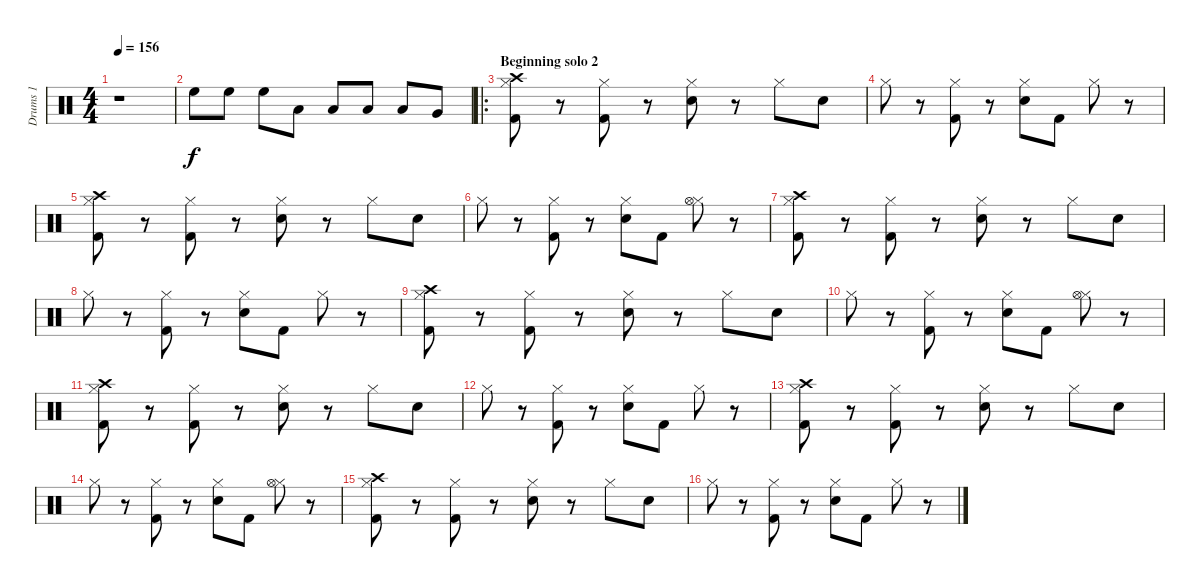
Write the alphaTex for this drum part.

\track ("Drums 1" "Drums 1") {instrument percussion}
\staff {score}
\articulation defaults
\ts (4 4)
\tempo 156
\clef neutral
\ks c
r.1{dy f} |
"High Floor Tom (hit)".8 "High Floor Tom (hit)".8 "High Floor Tom (hit)".8 "Low Tom (hit)".8 "Low Tom (hit)".8 "Low Tom (hit)".8 "Low Tom (hit)".8 "Very Low Tom (hit)".8 |
\ro
\section ("" "Beginning solo 2")
("Hi-Hat (closed)" "Crash high (hit)" "Kick (hit) 2").8 r.8 ("Hi-Hat (closed)" "Kick (hit) 2").8 r.8 ("Hi-Hat (closed)" "Snare (hit) 2").8 r.8 "Hi-Hat (closed)".8 "Snare (hit) 2".8 |
"Hi-Hat (closed)".8 r.8 ("Hi-Hat (closed)" "Kick (hit) 2").8 r.8 ("Hi-Hat (closed)" "Snare (hit) 2").8 "Kick (hit) 2".8 "Hi-Hat (closed)".8 r.8 |
("Hi-Hat (closed)" "Crash high (hit)" "Kick (hit) 2").8 r.8 ("Hi-Hat (closed)" "Kick (hit) 2").8 r.8 ("Hi-Hat (closed)" "Snare (hit) 2").8 r.8 "Hi-Hat (closed)".8 "Snare (hit) 2".8 |
"Hi-Hat (closed)".8 r.8 ("Hi-Hat (closed)" "Kick (hit) 2").8 r.8 ("Hi-Hat (closed)" "Snare (hit) 2").8 "Kick (hit) 2".8 ("Hi-Hat (closed)" "Hi-Hat (open)").8 r.8 |
("Hi-Hat (closed)" "Crash high (hit)" "Kick (hit) 2").8 r.8 ("Hi-Hat (closed)" "Kick (hit) 2").8 r.8 ("Hi-Hat (closed)" "Snare (hit) 2").8 r.8 "Hi-Hat (closed)".8 "Snare (hit) 2".8 |
"Hi-Hat (closed)".8 r.8 ("Hi-Hat (closed)" "Kick (hit) 2").8 r.8 ("Hi-Hat (closed)" "Snare (hit) 2").8 "Kick (hit) 2".8 "Hi-Hat (closed)".8 r.8 |
("Hi-Hat (closed)" "Crash high (hit)" "Kick (hit) 2").8 r.8 ("Hi-Hat (closed)" "Kick (hit) 2").8 r.8 ("Hi-Hat (closed)" "Snare (hit) 2").8 r.8 "Hi-Hat (closed)".8 "Snare (hit) 2".8 |
"Hi-Hat (closed)".8 r.8 ("Hi-Hat (closed)" "Kick (hit) 2").8 r.8 ("Hi-Hat (closed)" "Snare (hit) 2").8 "Kick (hit) 2".8 ("Hi-Hat (closed)" "Hi-Hat (open)").8 r.8 |
("Hi-Hat (closed)" "Crash high (hit)" "Kick (hit) 2").8 r.8 ("Hi-Hat (closed)" "Kick (hit) 2").8 r.8 ("Hi-Hat (closed)" "Snare (hit) 2").8 r.8 "Hi-Hat (closed)".8 "Snare (hit) 2".8 |
"Hi-Hat (closed)".8 r.8 ("Hi-Hat (closed)" "Kick (hit) 2").8 r.8 ("Hi-Hat (closed)" "Snare (hit) 2").8 "Kick (hit) 2".8 "Hi-Hat (closed)".8 r.8 |
("Hi-Hat (closed)" "Crash high (hit)" "Kick (hit) 2").8 r.8 ("Hi-Hat (closed)" "Kick (hit) 2").8 r.8 ("Hi-Hat (closed)" "Snare (hit) 2").8 r.8 "Hi-Hat (closed)".8 "Snare (hit) 2".8 |
"Hi-Hat (closed)".8 r.8 ("Hi-Hat (closed)" "Kick (hit) 2").8 r.8 ("Hi-Hat (closed)" "Snare (hit) 2").8 "Kick (hit) 2".8 ("Hi-Hat (closed)" "Hi-Hat (open)").8 r.8 |
("Hi-Hat (closed)" "Crash high (hit)" "Kick (hit) 2").8 r.8 ("Hi-Hat (closed)" "Kick (hit) 2").8 r.8 ("Hi-Hat (closed)" "Snare (hit) 2").8 r.8 "Hi-Hat (closed)".8 "Snare (hit) 2".8 |
"Hi-Hat (closed)".8 r.8 ("Hi-Hat (closed)" "Kick (hit) 2").8 r.8 ("Hi-Hat (closed)" "Snare (hit) 2").8 "Kick (hit) 2".8 "Hi-Hat (closed)".8 r.8
